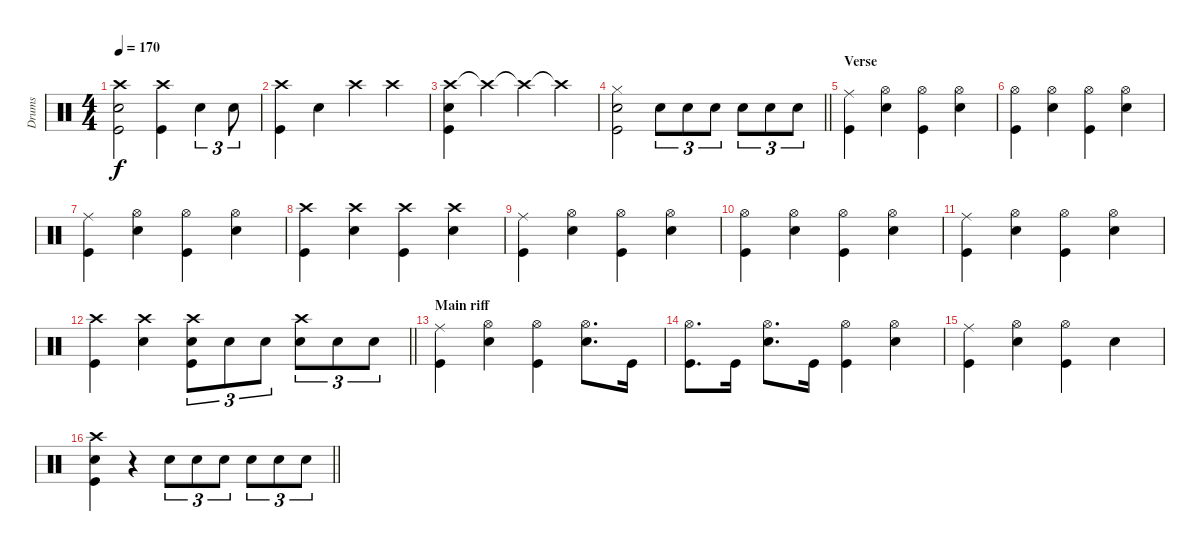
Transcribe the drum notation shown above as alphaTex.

\track ("Drums" "Drums") {instrument percussion}
\staff {score}
\articulation defaults
\ts (4 4)
\tempo 170
\clef neutral
\ks c
("Crash high (hit)" "Snare (hit) 2" "Kick (hit)").2{dy f} ("Crash high (hit)" "Kick (hit)").4 "Snare (hit) 2".4{tu (3 2)} "Snare (hit) 2".8{tu (3 2)} |
("Crash high (hit)" "Kick (hit)").4 "Snare (hit) 2".4 "Crash high (hit)".4 "Crash high (hit)".4 |
("Crash high (hit)" "Snare (hit) 2" "Kick (hit)").4{volume 16} "Crash high (hit)"{t}.4 "Crash high (hit)"{t}.4 "Crash high (hit)"{t}.4 |
\barLineRight lightlight
("Hi-Hat (closed)" "Snare (hit) 2" "Kick (hit)").2 "Snare (hit) 2".8{tu (3 2)} "Snare (hit) 2".8{tu (3 2)} "Snare (hit) 2".8{tu (3 2)} "Snare (hit) 2".8{tu (3 2)} "Snare (hit) 2".8{tu (3 2)} "Snare (hit) 2".8{tu (3 2)} |
\section ("" "Verse")
("Ride (middle)" "Kick (hit)").4 ("Hi-Hat (open)" "Snare (hit) 2").4 ("Hi-Hat (open)" "Kick (hit)").4 ("Hi-Hat (open)" "Snare (hit) 2").4 |
("Hi-Hat (open)" "Kick (hit)").4 ("Hi-Hat (open)" "Snare (hit) 2").4 ("Hi-Hat (open)" "Kick (hit)").4 ("Hi-Hat (open)" "Snare (hit) 2").4 |
("Ride (middle)" "Kick (hit)").4 ("Hi-Hat (open)" "Snare (hit) 2").4 ("Hi-Hat (open)" "Kick (hit)").4 ("Hi-Hat (open)" "Snare (hit) 2").4 |
("Crash high (hit)" "Kick (hit)").4 ("Crash high (hit)" "Snare (hit) 2").4 ("Crash high (hit)" "Kick (hit)").4 ("Crash high (hit)" "Snare (hit) 2").4 |
("Ride (middle)" "Kick (hit)").4 ("Hi-Hat (open)" "Snare (hit) 2").4 ("Hi-Hat (open)" "Kick (hit)").4 ("Hi-Hat (open)" "Snare (hit) 2").4 |
("Hi-Hat (open)" "Kick (hit)").4 ("Hi-Hat (open)" "Snare (hit) 2").4 ("Hi-Hat (open)" "Kick (hit)").4 ("Hi-Hat (open)" "Snare (hit) 2").4 |
("Ride (middle)" "Kick (hit)").4 ("Hi-Hat (open)" "Snare (hit) 2").4 ("Hi-Hat (open)" "Kick (hit)").4 ("Hi-Hat (open)" "Snare (hit) 2").4 |
\barLineRight lightlight
("Crash high (hit)" "Kick (hit)").4 ("Crash high (hit)" "Snare (hit) 2").4 ("Crash high (hit)" "Snare (hit) 2" "Kick (hit)").8{tu (3 2)} "Snare (hit) 2".8{tu (3 2)} "Snare (hit) 2".8{tu (3 2)} ("Crash high (hit)" "Snare (hit) 2").8{tu (3 2)} "Snare (hit) 2".8{tu (3 2)} "Snare (hit) 2".8{tu (3 2)} |
\section ("" "Main riff")
("Ride (middle)" "Kick (hit)").4 ("Hi-Hat (open)" "Snare (hit) 2").4 ("Hi-Hat (open)" "Kick (hit)").4 ("Hi-Hat (open)" "Snare (hit) 2").8{d} "Kick (hit)".16 |
("Hi-Hat (open)" "Kick (hit)").8{d} "Kick (hit)".16 ("Hi-Hat (open)" "Snare (hit) 2").8{d} "Kick (hit)".16 ("Hi-Hat (open)" "Kick (hit)").4 ("Hi-Hat (open)" "Snare (hit) 2").4 |
("Ride (middle)" "Kick (hit)").4 ("Hi-Hat (open)" "Snare (hit) 2").4 ("Hi-Hat (open)" "Kick (hit)").4 "Snare (hit) 2".4 |
\barLineRight lightlight
("Crash high (hit)" "Snare (hit) 2" "Kick (hit)").4 r.4 "Snare (hit) 2".8{tu (3 2)} "Snare (hit) 2".8{tu (3 2)} "Snare (hit) 2".8{tu (3 2)} "Snare (hit) 2".8{tu (3 2)} "Snare (hit) 2".8{tu (3 2)} "Snare (hit) 2".8{tu (3 2)}
